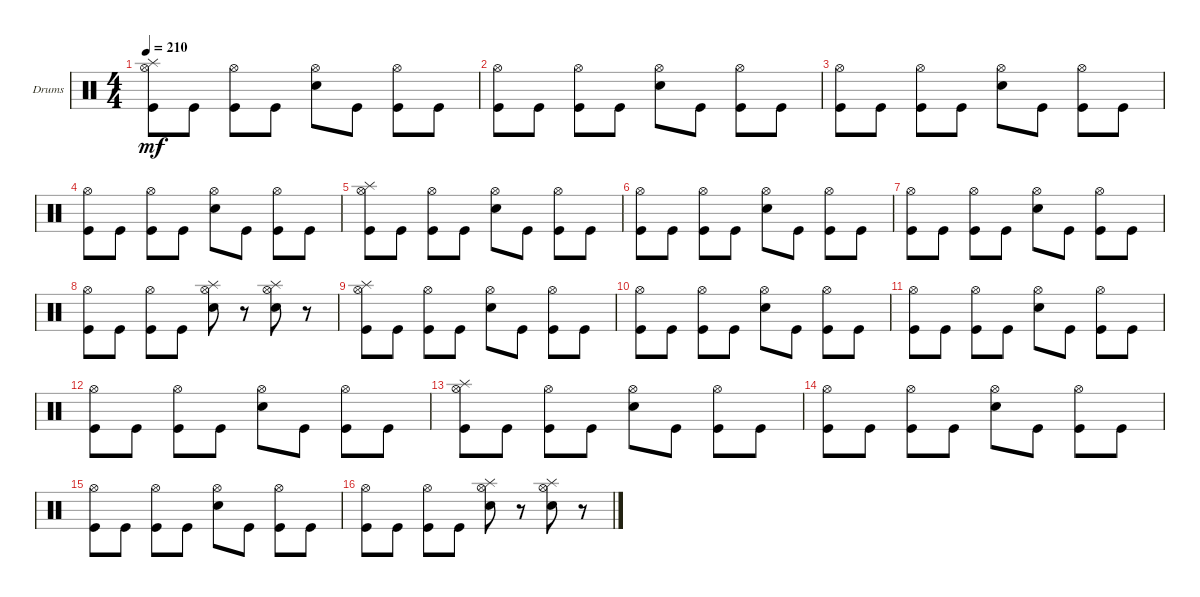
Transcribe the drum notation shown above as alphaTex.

\bracketExtendMode groupsimilarinstruments
\firstSystemTrackNameOrientation horizontal
\otherSystemsTrackNameOrientation horizontal
\track ("Drumkit" "Drums") {instrument percussion}
\staff {score}
\articulation defaults
\ts (4 4)
\tempo 210
\clef neutral
\ks c
("Kick (hit)" "Hi-Hat (open)" "Splash (hit)").8{dy mf} "Kick (hit)".8 ("Kick (hit)" "Hi-Hat (open)").8 "Kick (hit)".8 ("Hi-Hat (open)" "Snare (hit) 2").8 "Kick (hit)".8 ("Kick (hit)" "Hi-Hat (open)").8 "Kick (hit)".8 |
("Kick (hit)" "Hi-Hat (open)").8 "Kick (hit)".8 ("Kick (hit)" "Hi-Hat (open)").8 "Kick (hit)".8 ("Snare (hit) 2" "Hi-Hat (open)").8 "Kick (hit)".8 ("Kick (hit)" "Hi-Hat (open)").8 "Kick (hit)".8 |
("Kick (hit)" "Hi-Hat (open)").8 "Kick (hit)".8 ("Kick (hit)" "Hi-Hat (open)").8 "Kick (hit)".8 ("Snare (hit) 2" "Hi-Hat (open)").8 "Kick (hit)".8 ("Kick (hit)" "Hi-Hat (open)").8 "Kick (hit)".8 |
("Kick (hit)" "Hi-Hat (open)").8 "Kick (hit)".8 ("Kick (hit)" "Hi-Hat (open)").8 "Kick (hit)".8 ("Snare (hit) 2" "Hi-Hat (open)").8 "Kick (hit)".8 ("Kick (hit)" "Hi-Hat (open)").8 "Kick (hit)".8 |
("Kick (hit)" "Hi-Hat (open)" "Splash (hit)").8 "Kick (hit)".8 ("Kick (hit)" "Hi-Hat (open)").8 "Kick (hit)".8 ("Hi-Hat (open)" "Snare (hit) 2").8 "Kick (hit)".8 ("Kick (hit)" "Hi-Hat (open)").8 "Kick (hit)".8 |
("Kick (hit)" "Hi-Hat (open)").8 "Kick (hit)".8 ("Kick (hit)" "Hi-Hat (open)").8 "Kick (hit)".8 ("Snare (hit) 2" "Hi-Hat (open)").8 "Kick (hit)".8 ("Kick (hit)" "Hi-Hat (open)").8 "Kick (hit)".8 |
("Kick (hit)" "Hi-Hat (open)").8 "Kick (hit)".8 ("Kick (hit)" "Hi-Hat (open)").8 "Kick (hit)".8 ("Snare (hit) 2" "Hi-Hat (open)").8 "Kick (hit)".8 ("Kick (hit)" "Hi-Hat (open)").8 "Kick (hit)".8 |
("Kick (hit)" "Hi-Hat (open)").8 "Kick (hit)".8 ("Kick (hit)" "Hi-Hat (open)").8 "Kick (hit)".8 ("Snare (hit) 2" "Hi-Hat (open)" "Splash (hit)").8 r.8 ("Hi-Hat (open)" "Snare (hit) 2" "Splash (hit)").8 r.8 |
("Kick (hit)" "Hi-Hat (open)" "Splash (hit)").8 "Kick (hit)".8 ("Kick (hit)" "Hi-Hat (open)").8 "Kick (hit)".8 ("Hi-Hat (open)" "Snare (hit) 2").8 "Kick (hit)".8 ("Kick (hit)" "Hi-Hat (open)").8 "Kick (hit)".8 |
("Kick (hit)" "Hi-Hat (open)").8 "Kick (hit)".8 ("Kick (hit)" "Hi-Hat (open)").8 "Kick (hit)".8 ("Snare (hit) 2" "Hi-Hat (open)").8 "Kick (hit)".8 ("Kick (hit)" "Hi-Hat (open)").8 "Kick (hit)".8 |
("Kick (hit)" "Hi-Hat (open)").8 "Kick (hit)".8 ("Kick (hit)" "Hi-Hat (open)").8 "Kick (hit)".8 ("Snare (hit) 2" "Hi-Hat (open)").8 "Kick (hit)".8 ("Kick (hit)" "Hi-Hat (open)").8 "Kick (hit)".8 |
("Kick (hit)" "Hi-Hat (open)").8 "Kick (hit)".8 ("Kick (hit)" "Hi-Hat (open)").8 "Kick (hit)".8 ("Snare (hit) 2" "Hi-Hat (open)").8 "Kick (hit)".8 ("Kick (hit)" "Hi-Hat (open)").8 "Kick (hit)".8 |
("Kick (hit)" "Hi-Hat (open)" "Splash (hit)").8 "Kick (hit)".8 ("Kick (hit)" "Hi-Hat (open)").8 "Kick (hit)".8 ("Hi-Hat (open)" "Snare (hit) 2").8 "Kick (hit)".8 ("Kick (hit)" "Hi-Hat (open)").8 "Kick (hit)".8 |
("Kick (hit)" "Hi-Hat (open)").8 "Kick (hit)".8 ("Kick (hit)" "Hi-Hat (open)").8 "Kick (hit)".8 ("Snare (hit) 2" "Hi-Hat (open)").8 "Kick (hit)".8 ("Kick (hit)" "Hi-Hat (open)").8 "Kick (hit)".8 |
("Kick (hit)" "Hi-Hat (open)").8 "Kick (hit)".8 ("Kick (hit)" "Hi-Hat (open)").8 "Kick (hit)".8 ("Snare (hit) 2" "Hi-Hat (open)").8 "Kick (hit)".8 ("Kick (hit)" "Hi-Hat (open)").8 "Kick (hit)".8 |
("Kick (hit)" "Hi-Hat (open)").8 "Kick (hit)".8 ("Kick (hit)" "Hi-Hat (open)").8 "Kick (hit)".8 ("Snare (hit) 2" "Hi-Hat (open)" "Splash (hit)").8 r.8 ("Hi-Hat (open)" "Snare (hit) 2" "Splash (hit)").8 r.8
